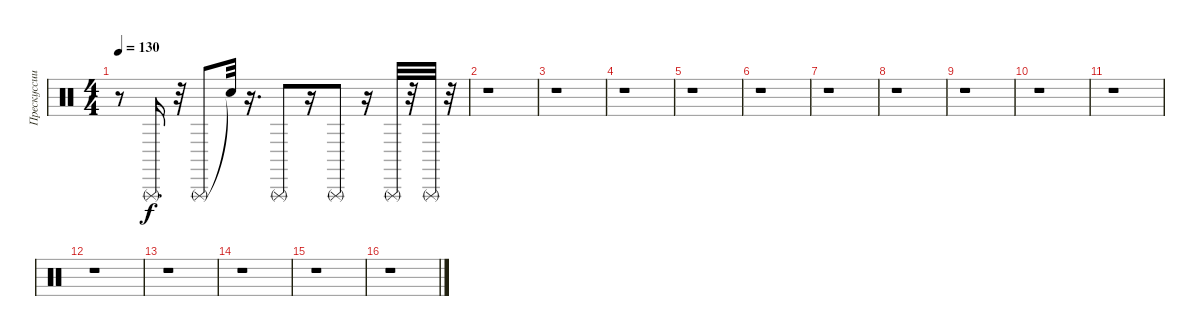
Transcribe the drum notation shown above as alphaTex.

\track ("Прескуссии 1" "Прескуссии") {instrument percussion}
\staff {score}
\articulation defaults
\ts (4 4)
\tempo 130
\clef neutral
\ks c
r.8{dy f} "Triangle (rnute)".16{d} r.32 "Triangle (rnute)".8 "Snare (hit)"{t}.32 r.16{d} "Triangle (rnute)".8 r.16 "Triangle (rnute)".8 r.16 "Triangle (rnute)".32 r.32 "Triangle (rnute)".32 r.32 |
r.1 |
r.1 |
r.1 |
r.1 |
r.1 |
r.1 |
r.1 |
r.1 |
r.1 |
r.1 |
r.1 |
r.1 |
r.1 |
r.1 |
r.1
